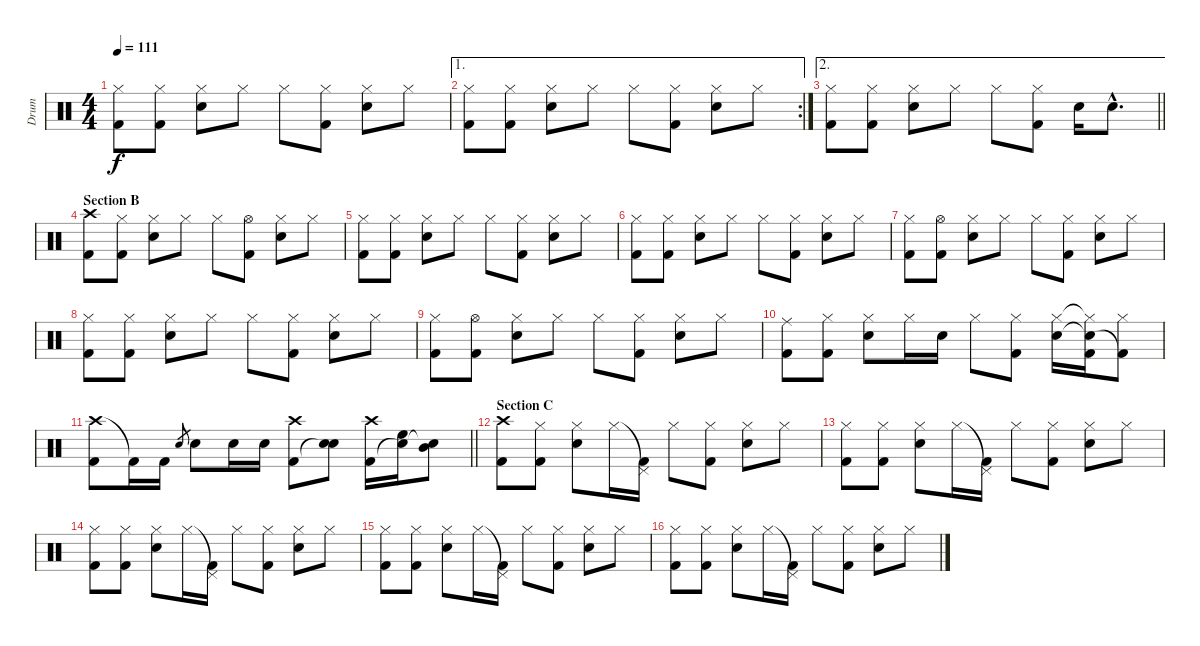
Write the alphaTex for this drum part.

\track ("Drum" "Drum") {instrument percussion}
\staff {score}
\articulation defaults
\ts (4 4)
\tempo 111
\clef neutral
\ks c
("Hi-Hat (closed)" "Kick (hit) 2").8{dy f} ("Hi-Hat (closed)" "Kick (hit) 2").8 ("Hi-Hat (closed)" "Snare (hit) 2").8 "Hi-Hat (closed)".8 "Hi-Hat (closed)".8 ("Hi-Hat (closed)" "Kick (hit) 2").8 ("Hi-Hat (closed)" "Snare (hit) 2").8 "Hi-Hat (closed)".8 |
\ae 1
\rc 2
("Hi-Hat (closed)" "Kick (hit) 2").8 ("Hi-Hat (closed)" "Kick (hit) 2").8 ("Hi-Hat (closed)" "Snare (hit) 2").8 "Hi-Hat (closed)".8 "Hi-Hat (closed)".8 ("Hi-Hat (closed)" "Kick (hit) 2").8 ("Hi-Hat (closed)" "Snare (hit) 2").8 "Hi-Hat (closed)".8 |
\ae 2
\barLineRight lightlight
("Hi-Hat (closed)" "Kick (hit) 2").8 ("Hi-Hat (closed)" "Kick (hit) 2").8 ("Hi-Hat (closed)" "Snare (hit) 2").8 "Hi-Hat (closed)".8 "Hi-Hat (closed)".8 ("Hi-Hat (closed)" "Kick (hit) 2").8 "Snare (hit) 2".16 "Snare (hit) 2"{hac}.8{d} |
\section ("" "Section B")
("Crash high (hit)" "Kick (hit) 2").8 ("Hi-Hat (closed)" "Kick (hit) 2").8 ("Hi-Hat (closed)" "Snare (hit) 2").8 "Hi-Hat (closed)".8 "Hi-Hat (closed)".8 ("Hi-Hat (open)" "Kick (hit) 2").8 ("Hi-Hat (closed)" "Snare (hit) 2").8 "Hi-Hat (closed)".8 |
("Hi-Hat (closed)" "Kick (hit) 2").8 ("Hi-Hat (closed)" "Kick (hit) 2").8 ("Hi-Hat (closed)" "Snare (hit) 2").8 "Hi-Hat (closed)".8 "Hi-Hat (closed)".8 ("Hi-Hat (closed)" "Kick (hit) 2").8 ("Hi-Hat (closed)" "Snare (hit) 2").8 "Hi-Hat (closed)".8 |
("Hi-Hat (closed)" "Kick (hit) 2").8 ("Hi-Hat (closed)" "Kick (hit) 2").8 ("Hi-Hat (closed)" "Snare (hit) 2").8 "Hi-Hat (closed)".8 "Hi-Hat (closed)".8 ("Hi-Hat (closed)" "Kick (hit) 2").8 ("Hi-Hat (closed)" "Snare (hit) 2").8 "Hi-Hat (closed)".8 |
("Hi-Hat (closed)" "Kick (hit) 2").8 ("Hi-Hat (open)" "Kick (hit) 2").8 ("Hi-Hat (closed)" "Snare (hit) 2").8 "Hi-Hat (closed)".8 "Hi-Hat (closed)".8 ("Hi-Hat (closed)" "Kick (hit) 2").8 ("Hi-Hat (closed)" "Snare (hit) 2").8 "Hi-Hat (closed)".8 |
("Hi-Hat (closed)" "Kick (hit) 2").8 ("Hi-Hat (closed)" "Kick (hit) 2").8 ("Hi-Hat (closed)" "Snare (hit) 2").8 "Hi-Hat (closed)".8 "Hi-Hat (closed)".8 ("Hi-Hat (closed)" "Kick (hit) 2").8 ("Hi-Hat (closed)" "Snare (hit) 2").8 "Hi-Hat (closed)".8 |
("Hi-Hat (closed)" "Kick (hit) 2").8 ("Hi-Hat (open)" "Kick (hit) 2").8 ("Hi-Hat (closed)" "Snare (hit) 2").8 "Hi-Hat (closed)".8 "Hi-Hat (closed)".8 ("Hi-Hat (closed)" "Kick (hit) 2").8 ("Hi-Hat (closed)" "Snare (hit) 2").8 "Hi-Hat (closed)".8 |
("Ride (middle)" "Kick (hit) 2").8 ("Hi-Hat (closed)" "Kick (hit) 2").8 ("Hi-Hat (closed)" "Snare (hit) 2").8 "Hi-Hat (closed)".16 "Snare (hit) 2".16 "Hi-Hat (closed)".8 ("Hi-Hat (closed)" "Kick (hit) 2").8 ("Hi-Hat (closed)" "Snare (hit) 2").16 ("Hi-Hat (closed)"{t} "Snare (hit)"{t} "Kick (hit) 2").16 ("Hi-Hat (closed)" "Kick (hit) 2"{t}).8 |
\barLineRight lightlight
("Crash high (hit)" "Kick (hit) 2").8 "Kick (hit) 2"{t}.16 "Kick (hit) 2".16 "Snare (hit) 2".8{gr} "Snare (hit) 2".8 "Snare (hit) 2".16 "Snare (hit) 2".16 ("Crash high (hit)" "Kick (hit) 2").8 ("Snare (hit) 2" "Snare (hit)"{t}).8 ("Crash high (hit)" "Kick (hit) 2").16 ("High Floor Tom (hit)" "Snare (hit)"{t}).16 ("Mid Tom (hit)" "Snare (hit)"{t}).8 |
\section ("" "Section C")
("Crash high (hit)" "Kick (hit) 2").8 ("Hi-Hat (closed)" "Kick (hit) 2").8 ("Hi-Hat (closed)" "Snare (hit) 2").8 "Hi-Hat (closed)".16 ("Pedal Hi-Hat (hit)"{t} "Kick (hit) 2").16 "Hi-Hat (closed)".8 ("Hi-Hat (closed)" "Kick (hit) 2").8 ("Hi-Hat (closed)" "Snare (hit) 2").8 "Hi-Hat (closed)".8 |
("Hi-Hat (closed)" "Kick (hit) 2").8 ("Hi-Hat (closed)" "Kick (hit) 2").8 ("Hi-Hat (closed)" "Snare (hit) 2").8 "Hi-Hat (closed)".16 ("Pedal Hi-Hat (hit)"{t} "Kick (hit) 2").16 "Hi-Hat (closed)".8 ("Hi-Hat (closed)" "Kick (hit) 2").8 ("Hi-Hat (closed)" "Snare (hit) 2").8 "Hi-Hat (closed)".8 |
("Hi-Hat (closed)" "Kick (hit) 2").8 ("Hi-Hat (closed)" "Kick (hit) 2").8 ("Hi-Hat (closed)" "Snare (hit) 2").8 "Hi-Hat (closed)".16 ("Pedal Hi-Hat (hit)"{t} "Kick (hit) 2").16 "Hi-Hat (closed)".8 ("Hi-Hat (closed)" "Kick (hit) 2").8 ("Hi-Hat (closed)" "Snare (hit) 2").8 "Hi-Hat (closed)".8 |
("Hi-Hat (closed)" "Kick (hit) 2").8 ("Hi-Hat (closed)" "Kick (hit) 2").8 ("Hi-Hat (closed)" "Snare (hit) 2").8 "Hi-Hat (closed)".16 ("Pedal Hi-Hat (hit)"{t} "Kick (hit) 2").16 "Hi-Hat (closed)".8 ("Hi-Hat (closed)" "Kick (hit) 2").8 ("Hi-Hat (closed)" "Snare (hit) 2").8 "Hi-Hat (closed)".8 |
("Hi-Hat (closed)" "Kick (hit) 2").8 ("Hi-Hat (closed)" "Kick (hit) 2").8 ("Hi-Hat (closed)" "Snare (hit) 2").8 "Hi-Hat (closed)".16 ("Pedal Hi-Hat (hit)"{t} "Kick (hit) 2").16 "Hi-Hat (closed)".8 ("Hi-Hat (closed)" "Kick (hit) 2").8 ("Hi-Hat (closed)" "Snare (hit) 2").8 "Hi-Hat (closed)".8
